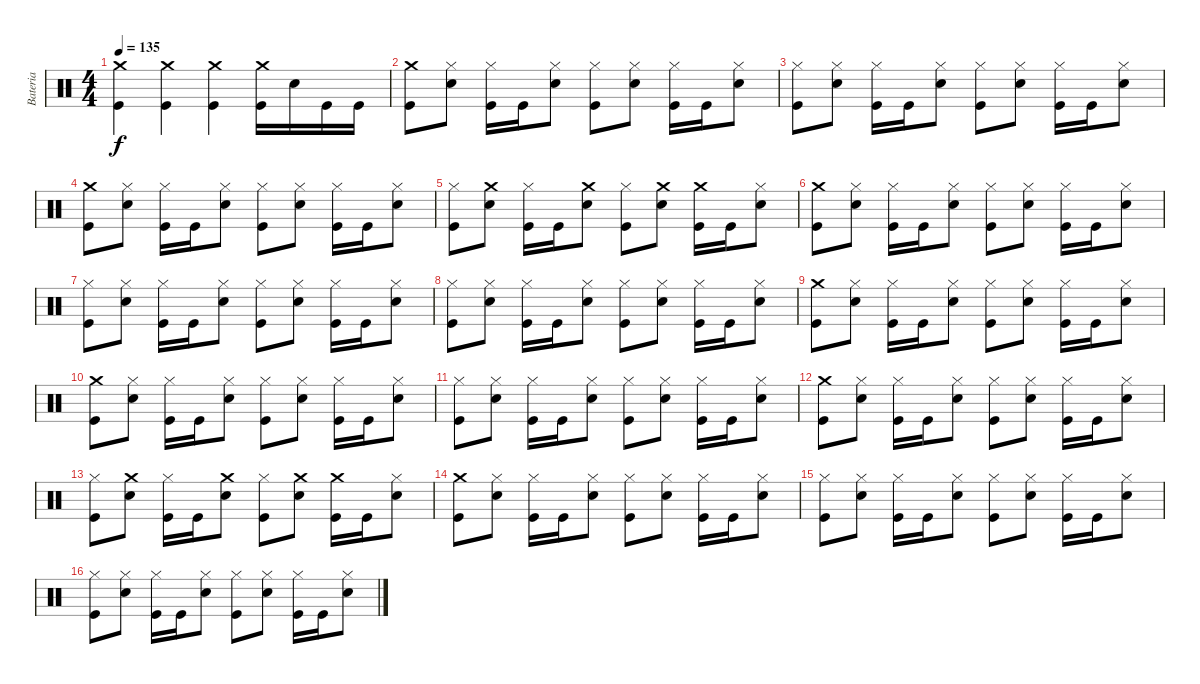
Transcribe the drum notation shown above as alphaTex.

\track ("Bateria" "Bateria") {instrument percussion}
\staff {score}
\articulation defaults
\ts (4 4)
\tempo 135
\clef neutral
\ks c
("Kick (hit)" "Crash medium (hit)").4{dy f} ("Kick (hit)" "Crash medium (hit)").4 ("Kick (hit)" "Crash medium (hit)").4 ("Kick (hit)" "Crash medium (hit)").16 "Snare (hit) 2".16 "Kick (hit)".16 "Kick (hit)".16 |
("Kick (hit)" "Crash medium (hit)").8 ("Snare (hit) 2" "Hi-Hat (closed)").8 ("Kick (hit)" "Hi-Hat (closed)").16 "Kick (hit)".16 ("Snare (hit) 2" "Hi-Hat (closed)").8 ("Kick (hit)" "Hi-Hat (closed)").8 ("Snare (hit) 2" "Hi-Hat (closed)").8 ("Kick (hit)" "Hi-Hat (closed)").16 "Kick (hit)".16 ("Snare (hit) 2" "Hi-Hat (closed)").8 |
("Kick (hit)" "Hi-Hat (closed)").8 ("Snare (hit) 2" "Hi-Hat (closed)").8 ("Kick (hit)" "Hi-Hat (closed)").16 "Kick (hit)".16 ("Snare (hit) 2" "Hi-Hat (closed)").8 ("Kick (hit)" "Hi-Hat (closed)").8 ("Snare (hit) 2" "Hi-Hat (closed)").8 ("Kick (hit)" "Hi-Hat (closed)").16 "Kick (hit)".16 ("Snare (hit) 2" "Hi-Hat (closed)").8 |
("Kick (hit)" "Crash medium (hit)").8 ("Snare (hit) 2" "Hi-Hat (closed)").8 ("Kick (hit)" "Hi-Hat (closed)").16 "Kick (hit)".16 ("Snare (hit) 2" "Hi-Hat (closed)").8 ("Kick (hit)" "Hi-Hat (closed)").8 ("Snare (hit) 2" "Hi-Hat (closed)").8 ("Kick (hit)" "Hi-Hat (closed)").16 "Kick (hit)".16 ("Snare (hit) 2" "Hi-Hat (closed)").8 |
("Kick (hit)" "Hi-Hat (closed)").8 ("Snare (hit) 2" "Crash medium (hit)").8 ("Kick (hit)" "Hi-Hat (closed)").16 "Kick (hit)".16 ("Snare (hit) 2" "Crash medium (hit)").8 ("Kick (hit)" "Hi-Hat (closed)").8 ("Snare (hit) 2" "Crash medium (hit)").8 ("Kick (hit)" "Crash medium (hit)").16 "Kick (hit)".16 ("Snare (hit) 2" "Hi-Hat (closed)").8 |
("Kick (hit)" "Crash medium (hit)").8 ("Snare (hit) 2" "Hi-Hat (closed)").8 ("Kick (hit)" "Hi-Hat (closed)").16 "Kick (hit)".16 ("Snare (hit) 2" "Hi-Hat (closed)").8 ("Kick (hit)" "Hi-Hat (closed)").8 ("Snare (hit) 2" "Hi-Hat (closed)").8 ("Kick (hit)" "Hi-Hat (closed)").16 "Kick (hit)".16 ("Snare (hit) 2" "Hi-Hat (closed)").8 |
("Kick (hit)" "Hi-Hat (closed)").8 ("Snare (hit) 2" "Hi-Hat (closed)").8 ("Kick (hit)" "Hi-Hat (closed)").16 "Kick (hit)".16 ("Snare (hit) 2" "Hi-Hat (closed)").8 ("Kick (hit)" "Hi-Hat (closed)").8 ("Snare (hit) 2" "Hi-Hat (closed)").8 ("Kick (hit)" "Hi-Hat (closed)").16 "Kick (hit)".16 ("Snare (hit) 2" "Hi-Hat (closed)").8 |
("Kick (hit)" "Hi-Hat (closed)").8 ("Snare (hit) 2" "Hi-Hat (closed)").8 ("Kick (hit)" "Hi-Hat (closed)").16 "Kick (hit)".16 ("Snare (hit) 2" "Hi-Hat (closed)").8 ("Kick (hit)" "Hi-Hat (closed)").8 ("Snare (hit) 2" "Hi-Hat (closed)").8 ("Kick (hit)" "Hi-Hat (closed)").16 "Kick (hit)".16 ("Snare (hit) 2" "Hi-Hat (closed)").8 |
("Kick (hit)" "Crash medium (hit)").8 ("Snare (hit) 2" "Hi-Hat (closed)").8 ("Kick (hit)" "Hi-Hat (closed)").16 "Kick (hit)".16 ("Snare (hit) 2" "Hi-Hat (closed)").8 ("Kick (hit)" "Hi-Hat (closed)").8 ("Snare (hit) 2" "Hi-Hat (closed)").8 ("Kick (hit)" "Hi-Hat (closed)").16 "Kick (hit)".16 ("Snare (hit) 2" "Hi-Hat (closed)").8 |
("Kick (hit)" "Crash medium (hit)").8 ("Snare (hit) 2" "Hi-Hat (closed)").8 ("Kick (hit)" "Hi-Hat (closed)").16 "Kick (hit)".16 ("Snare (hit) 2" "Hi-Hat (closed)").8 ("Kick (hit)" "Hi-Hat (closed)").8 ("Snare (hit) 2" "Hi-Hat (closed)").8 ("Kick (hit)" "Hi-Hat (closed)").16 "Kick (hit)".16 ("Snare (hit) 2" "Hi-Hat (closed)").8 |
("Kick (hit)" "Hi-Hat (closed)").8 ("Snare (hit) 2" "Hi-Hat (closed)").8 ("Kick (hit)" "Hi-Hat (closed)").16 "Kick (hit)".16 ("Snare (hit) 2" "Hi-Hat (closed)").8 ("Kick (hit)" "Hi-Hat (closed)").8 ("Snare (hit) 2" "Hi-Hat (closed)").8 ("Kick (hit)" "Hi-Hat (closed)").16 "Kick (hit)".16 ("Snare (hit) 2" "Hi-Hat (closed)").8 |
("Kick (hit)" "Crash medium (hit)").8 ("Snare (hit) 2" "Hi-Hat (closed)").8 ("Kick (hit)" "Hi-Hat (closed)").16 "Kick (hit)".16 ("Snare (hit) 2" "Hi-Hat (closed)").8 ("Kick (hit)" "Hi-Hat (closed)").8 ("Snare (hit) 2" "Hi-Hat (closed)").8 ("Kick (hit)" "Hi-Hat (closed)").16 "Kick (hit)".16 ("Snare (hit) 2" "Hi-Hat (closed)").8 |
("Kick (hit)" "Hi-Hat (closed)").8 ("Snare (hit) 2" "Crash medium (hit)").8 ("Kick (hit)" "Hi-Hat (closed)").16 "Kick (hit)".16 ("Snare (hit) 2" "Crash medium (hit)").8 ("Kick (hit)" "Hi-Hat (closed)").8 ("Snare (hit) 2" "Crash medium (hit)").8 ("Kick (hit)" "Crash medium (hit)").16 "Kick (hit)".16 ("Snare (hit) 2" "Hi-Hat (closed)").8 |
("Kick (hit)" "Crash medium (hit)").8 ("Snare (hit) 2" "Hi-Hat (closed)").8 ("Kick (hit)" "Hi-Hat (closed)").16 "Kick (hit)".16 ("Snare (hit) 2" "Hi-Hat (closed)").8 ("Kick (hit)" "Hi-Hat (closed)").8 ("Snare (hit) 2" "Hi-Hat (closed)").8 ("Kick (hit)" "Hi-Hat (closed)").16 "Kick (hit)".16 ("Snare (hit) 2" "Hi-Hat (closed)").8 |
("Kick (hit)" "Hi-Hat (closed)").8 ("Snare (hit) 2" "Hi-Hat (closed)").8 ("Kick (hit)" "Hi-Hat (closed)").16 "Kick (hit)".16 ("Snare (hit) 2" "Hi-Hat (closed)").8 ("Kick (hit)" "Hi-Hat (closed)").8 ("Snare (hit) 2" "Hi-Hat (closed)").8 ("Kick (hit)" "Hi-Hat (closed)").16 "Kick (hit)".16 ("Snare (hit) 2" "Hi-Hat (closed)").8 |
("Kick (hit)" "Hi-Hat (closed)").8 ("Snare (hit) 2" "Hi-Hat (closed)").8 ("Kick (hit)" "Hi-Hat (closed)").16 "Kick (hit)".16 ("Snare (hit) 2" "Hi-Hat (closed)").8 ("Kick (hit)" "Hi-Hat (closed)").8 ("Snare (hit) 2" "Hi-Hat (closed)").8 ("Kick (hit)" "Hi-Hat (closed)").16 "Kick (hit)".16 ("Snare (hit) 2" "Hi-Hat (closed)").8
